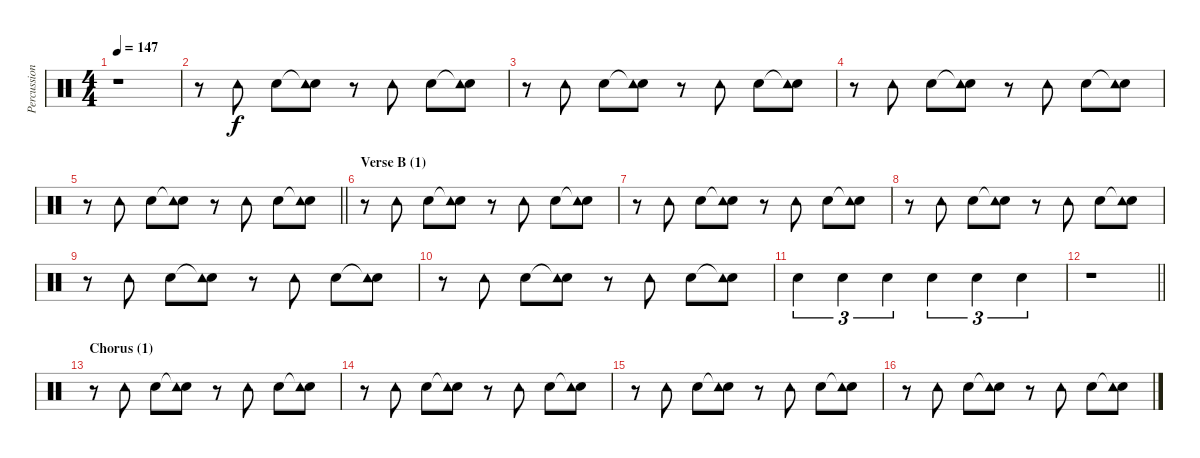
\track ("Percussion" "Percussion") {instrument percussion}
\staff {score}
\articulation defaults
\ts (4 4)
\tempo 147
\clef neutral
\ks aminor
r.1{dy f} |
r.8 "Tambourine (hit)".8 "Hand Clap (hit)".8 ("Snare (hit)"{t} "Tambourine (hit)").8 r.8 "Tambourine (hit)".8 "Hand Clap (hit)".8 ("Snare (hit)"{t} "Tambourine (hit)").8 |
r.8 "Tambourine (hit)".8 "Hand Clap (hit)".8 ("Snare (hit)"{t} "Tambourine (hit)").8 r.8 "Tambourine (hit)".8 "Hand Clap (hit)".8 ("Snare (hit)"{t} "Tambourine (hit)").8 |
r.8 "Tambourine (hit)".8 "Hand Clap (hit)".8 ("Snare (hit)"{t} "Tambourine (hit)").8 r.8 "Tambourine (hit)".8 "Hand Clap (hit)".8 ("Snare (hit)"{t} "Tambourine (hit)").8 |
\barLineRight lightlight
r.8 "Tambourine (hit)".8 "Hand Clap (hit)".8 ("Snare (hit)"{t} "Tambourine (hit)").8 r.8 "Tambourine (hit)".8 "Hand Clap (hit)".8 ("Snare (hit)"{t} "Tambourine (hit)").8 |
\section ("" "Verse B (1)")
r.8 "Tambourine (hit)".8 "Hand Clap (hit)".8 ("Snare (hit)"{t} "Tambourine (hit)").8 r.8 "Tambourine (hit)".8 "Hand Clap (hit)".8 ("Snare (hit)"{t} "Tambourine (hit)").8 |
r.8 "Tambourine (hit)".8 "Hand Clap (hit)".8 ("Snare (hit)"{t} "Tambourine (hit)").8 r.8 "Tambourine (hit)".8 "Hand Clap (hit)".8 ("Snare (hit)"{t} "Tambourine (hit)").8 |
r.8 "Tambourine (hit)".8 "Hand Clap (hit)".8 ("Snare (hit)"{t} "Tambourine (hit)").8 r.8 "Tambourine (hit)".8 "Hand Clap (hit)".8 ("Snare (hit)"{t} "Tambourine (hit)").8 |
r.8 "Tambourine (hit)".8 "Hand Clap (hit)".8 ("Snare (hit)"{t} "Tambourine (hit)").8 r.8 "Tambourine (hit)".8 "Hand Clap (hit)".8 ("Snare (hit)"{t} "Tambourine (hit)").8 |
r.8 "Tambourine (hit)".8 "Hand Clap (hit)".8 ("Snare (hit)"{t} "Tambourine (hit)").8 r.8 "Tambourine (hit)".8 "Hand Clap (hit)".8 ("Snare (hit)"{t} "Tambourine (hit)").8 |
"Hand Clap (hit)".4{tu (3 2)} "Hand Clap (hit)".4{tu (3 2)} "Hand Clap (hit)".4{tu (3 2)} "Hand Clap (hit)".4{tu (3 2)} "Hand Clap (hit)".4{tu (3 2)} "Hand Clap (hit)".4{tu (3 2)} |
\barLineRight lightlight
r.1 |
\section ("" "Chorus (1)")
r.8 "Tambourine (hit)".8 "Hand Clap (hit)".8 ("Snare (hit)"{t} "Tambourine (hit)").8 r.8 "Tambourine (hit)".8 "Hand Clap (hit)".8 ("Snare (hit)"{t} "Tambourine (hit)").8 |
r.8 "Tambourine (hit)".8 "Hand Clap (hit)".8 ("Snare (hit)"{t} "Tambourine (hit)").8 r.8 "Tambourine (hit)".8 "Hand Clap (hit)".8 ("Snare (hit)"{t} "Tambourine (hit)").8 |
r.8 "Tambourine (hit)".8 "Hand Clap (hit)".8 ("Snare (hit)"{t} "Tambourine (hit)").8 r.8 "Tambourine (hit)".8 "Hand Clap (hit)".8 ("Snare (hit)"{t} "Tambourine (hit)").8 |
r.8 "Tambourine (hit)".8 "Hand Clap (hit)".8 ("Snare (hit)"{t} "Tambourine (hit)").8 r.8 "Tambourine (hit)".8 "Hand Clap (hit)".8 ("Snare (hit)"{t} "Tambourine (hit)").8
